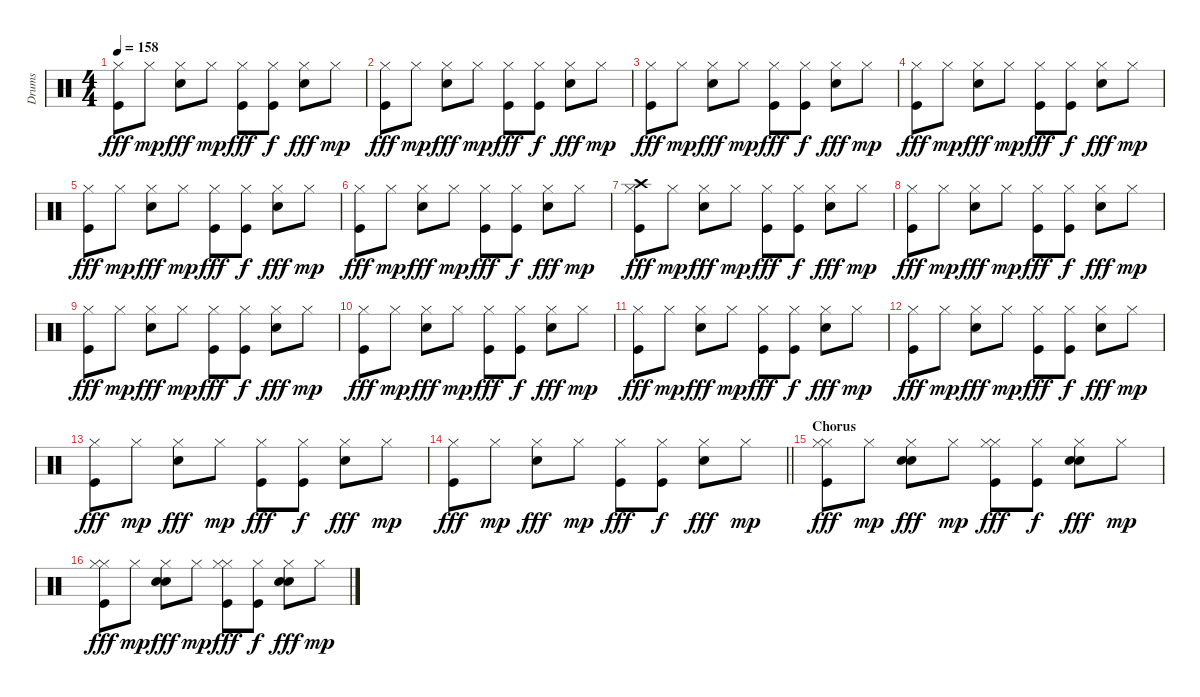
\track ("Drums" "Drums") {instrument percussion}
\staff {score}
\articulation defaults
\ts (4 4)
\tempo 158
\clef neutral
\ks c
("Hi-Hat (closed)" "Kick (hit)").8{dy fff} "Hi-Hat (closed)".8{dy mp} ("Snare (hit) 2" "Hi-Hat (closed)").8{dy fff} "Hi-Hat (closed)".8{dy mp} ("Hi-Hat (closed)" "Kick (hit)").8{dy fff} ("Hi-Hat (closed)" "Kick (hit)").8{dy f} ("Snare (hit) 2" "Hi-Hat (closed)").8{dy fff} "Hi-Hat (closed)".8{dy mp} |
("Hi-Hat (closed)" "Kick (hit)").8{dy fff} "Hi-Hat (closed)".8{dy mp} ("Snare (hit) 2" "Hi-Hat (closed)").8{dy fff} "Hi-Hat (closed)".8{dy mp} ("Hi-Hat (closed)" "Kick (hit)").8{dy fff} ("Hi-Hat (closed)" "Kick (hit)").8{dy f} ("Snare (hit) 2" "Hi-Hat (closed)").8{dy fff} "Hi-Hat (closed)".8{dy mp} |
("Hi-Hat (closed)" "Kick (hit)").8{dy fff} "Hi-Hat (closed)".8{dy mp} ("Snare (hit) 2" "Hi-Hat (closed)").8{dy fff} "Hi-Hat (closed)".8{dy mp} ("Hi-Hat (closed)" "Kick (hit)").8{dy fff} ("Hi-Hat (closed)" "Kick (hit)").8{dy f} ("Snare (hit) 2" "Hi-Hat (closed)").8{dy fff} "Hi-Hat (closed)".8{dy mp} |
("Hi-Hat (closed)" "Kick (hit)").8{dy fff} "Hi-Hat (closed)".8{dy mp} ("Snare (hit) 2" "Hi-Hat (closed)").8{dy fff} "Hi-Hat (closed)".8{dy mp} ("Hi-Hat (closed)" "Kick (hit)").8{dy fff} ("Hi-Hat (closed)" "Kick (hit)").8{dy f} ("Snare (hit) 2" "Hi-Hat (closed)").8{dy fff} "Hi-Hat (closed)".8{dy mp} |
("Hi-Hat (closed)" "Kick (hit)").8{dy fff} "Hi-Hat (closed)".8{dy mp} ("Snare (hit) 2" "Hi-Hat (closed)").8{dy fff} "Hi-Hat (closed)".8{dy mp} ("Hi-Hat (closed)" "Kick (hit)").8{dy fff} ("Hi-Hat (closed)" "Kick (hit)").8{dy f} ("Snare (hit) 2" "Hi-Hat (closed)").8{dy fff} "Hi-Hat (closed)".8{dy mp} |
("Hi-Hat (closed)" "Kick (hit)").8{dy fff} "Hi-Hat (closed)".8{dy mp} ("Snare (hit) 2" "Hi-Hat (closed)").8{dy fff} "Hi-Hat (closed)".8{dy mp} ("Hi-Hat (closed)" "Kick (hit)").8{dy fff} ("Hi-Hat (closed)" "Kick (hit)").8{dy f} ("Snare (hit) 2" "Hi-Hat (closed)").8{dy fff} "Hi-Hat (closed)".8{dy mp} |
("Hi-Hat (closed)" "Kick (hit)" "Crash high (hit)").8{dy fff} "Hi-Hat (closed)".8{dy mp} ("Snare (hit) 2" "Hi-Hat (closed)").8{dy fff} "Hi-Hat (closed)".8{dy mp} ("Hi-Hat (closed)" "Kick (hit)").8{dy fff} ("Hi-Hat (closed)" "Kick (hit)").8{dy f} ("Snare (hit) 2" "Hi-Hat (closed)").8{dy fff} "Hi-Hat (closed)".8{dy mp} |
("Hi-Hat (closed)" "Kick (hit)").8{dy fff} "Hi-Hat (closed)".8{dy mp} ("Snare (hit) 2" "Hi-Hat (closed)").8{dy fff} "Hi-Hat (closed)".8{dy mp} ("Hi-Hat (closed)" "Kick (hit)").8{dy fff} ("Hi-Hat (closed)" "Kick (hit)").8{dy f} ("Snare (hit) 2" "Hi-Hat (closed)").8{dy fff} "Hi-Hat (closed)".8{dy mp} |
("Hi-Hat (closed)" "Kick (hit)").8{dy fff} "Hi-Hat (closed)".8{dy mp} ("Snare (hit) 2" "Hi-Hat (closed)").8{dy fff} "Hi-Hat (closed)".8{dy mp} ("Hi-Hat (closed)" "Kick (hit)").8{dy fff} ("Hi-Hat (closed)" "Kick (hit)").8{dy f} ("Snare (hit) 2" "Hi-Hat (closed)").8{dy fff} "Hi-Hat (closed)".8{dy mp} |
("Hi-Hat (closed)" "Kick (hit)").8{dy fff} "Hi-Hat (closed)".8{dy mp} ("Snare (hit) 2" "Hi-Hat (closed)").8{dy fff} "Hi-Hat (closed)".8{dy mp} ("Hi-Hat (closed)" "Kick (hit)").8{dy fff} ("Hi-Hat (closed)" "Kick (hit)").8{dy f} ("Snare (hit) 2" "Hi-Hat (closed)").8{dy fff} "Hi-Hat (closed)".8{dy mp} |
("Hi-Hat (closed)" "Kick (hit)").8{dy fff} "Hi-Hat (closed)".8{dy mp} ("Snare (hit) 2" "Hi-Hat (closed)").8{dy fff} "Hi-Hat (closed)".8{dy mp} ("Hi-Hat (closed)" "Kick (hit)").8{dy fff} ("Hi-Hat (closed)" "Kick (hit)").8{dy f} ("Snare (hit) 2" "Hi-Hat (closed)").8{dy fff} "Hi-Hat (closed)".8{dy mp} |
("Hi-Hat (closed)" "Kick (hit)").8{dy fff} "Hi-Hat (closed)".8{dy mp} ("Snare (hit) 2" "Hi-Hat (closed)").8{dy fff} "Hi-Hat (closed)".8{dy mp} ("Hi-Hat (closed)" "Kick (hit)").8{dy fff} ("Hi-Hat (closed)" "Kick (hit)").8{dy f} ("Snare (hit) 2" "Hi-Hat (closed)").8{dy fff} "Hi-Hat (closed)".8{dy mp} |
("Hi-Hat (closed)" "Kick (hit)").8{dy fff} "Hi-Hat (closed)".8{dy mp} ("Snare (hit) 2" "Hi-Hat (closed)").8{dy fff} "Hi-Hat (closed)".8{dy mp} ("Hi-Hat (closed)" "Kick (hit)").8{dy fff} ("Hi-Hat (closed)" "Kick (hit)").8{dy f} ("Snare (hit) 2" "Hi-Hat (closed)").8{dy fff} "Hi-Hat (closed)".8{dy mp} |
\barLineRight lightlight
("Hi-Hat (closed)" "Kick (hit)").8{dy fff} "Hi-Hat (closed)".8{dy mp} ("Snare (hit) 2" "Hi-Hat (closed)").8{dy fff} "Hi-Hat (closed)".8{dy mp} ("Hi-Hat (closed)" "Kick (hit)").8{dy fff} ("Hi-Hat (closed)" "Kick (hit)").8{dy f} ("Snare (hit) 2" "Hi-Hat (closed)").8{dy fff} "Hi-Hat (closed)".8{dy mp} |
\section ("" "Chorus")
("Hi-Hat (closed)" "Kick (hit)" "Hi-Hat (closed)").8{dy fff} "Hi-Hat (closed)".8{dy mp} ("Snare (hit) 2" "Hi-Hat (closed)" "Electric Snare (hit)").8{dy fff} "Hi-Hat (closed)".8{dy mp} ("Hi-Hat (closed)" "Kick (hit)" "Hi-Hat (closed)").8{dy fff} ("Hi-Hat (closed)" "Kick (hit)").8{dy f} ("Snare (hit) 2" "Hi-Hat (closed)" "Electric Snare (hit)").8{dy fff} "Hi-Hat (closed)".8{dy mp} |
("Hi-Hat (closed)" "Kick (hit)" "Hi-Hat (closed)").8{dy fff} "Hi-Hat (closed)".8{dy mp} ("Snare (hit) 2" "Hi-Hat (closed)" "Electric Snare (hit)").8{dy fff} "Hi-Hat (closed)".8{dy mp} ("Hi-Hat (closed)" "Kick (hit)" "Hi-Hat (closed)").8{dy fff} ("Hi-Hat (closed)" "Kick (hit)").8{dy f} ("Snare (hit) 2" "Hi-Hat (closed)" "Electric Snare (hit)").8{dy fff} "Hi-Hat (closed)".8{dy mp}
